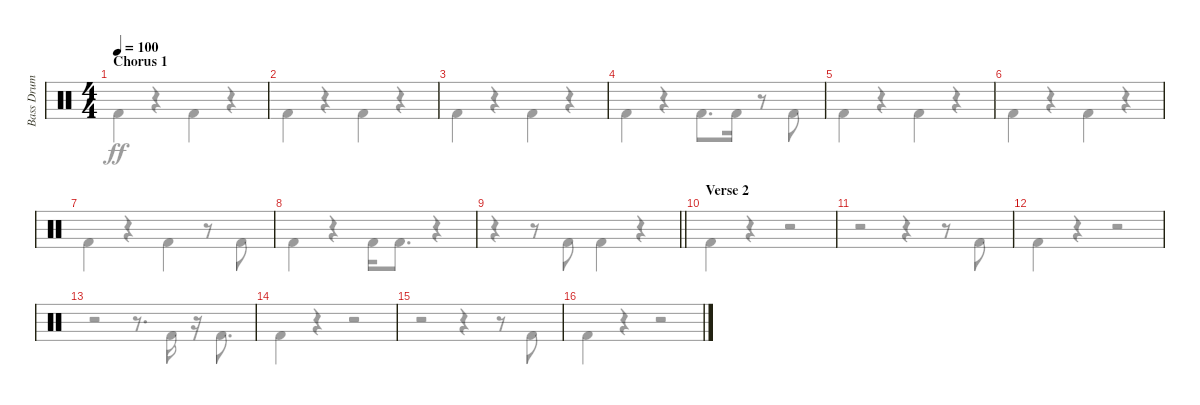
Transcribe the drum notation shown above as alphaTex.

\track ("Bass Drum" "Bass Drum") {instrument percussion}
\staff {score}
\articulation defaults
\voice
\ts (4 4)
\section ("" "Chorus 1")
\tempo 100
\clef neutral
\ks c
|
|
|
|
|
|
|
|
\barLineRight lightlight
|
\section ("" "Verse 2")
|
|
|
|
|
|
\voice
\clef neutral
\ks c "Kick (hit) 2".4{dy ff}
r.4 "Kick (hit) 2".4 r.4 |
"Kick (hit) 2".4 r.4 "Kick (hit) 2".4 r.4 |
"Kick (hit) 2".4 r.4 "Kick (hit) 2".4 r.4 |
"Kick (hit) 2".4 r.4 "Kick (hit) 2".8{d} "Kick (hit) 2".16 r.8 "Kick (hit) 2".8 |
"Kick (hit) 2".4 r.4 "Kick (hit) 2".4 r.4 |
"Kick (hit) 2".4 r.4 "Kick (hit) 2".4 r.4 |
"Kick (hit) 2".4 r.4 "Kick (hit) 2".4 r.8 "Kick (hit) 2".8 |
"Kick (hit) 2".4 r.4 "Kick (hit) 2".16 "Kick (hit) 2".8{d} r.4 |
\barLineRight lightlight
r.4 r.8 "Kick (hit) 2".8 "Kick (hit) 2".4 r.4 |
"Kick (hit) 2".4 r.4 r.2 |
r.2 r.4 r.8 "Kick (hit) 2".8 |
"Kick (hit) 2".4 r.4 r.2 |
r.2 r.8{d} "Kick (hit) 2".16 r.16 "Kick (hit) 2".8{d} |
"Kick (hit) 2".4 r.4 r.2 |
r.2 r.4 r.8 "Kick (hit) 2".8 |
"Kick (hit) 2".4 r.4 r.2
